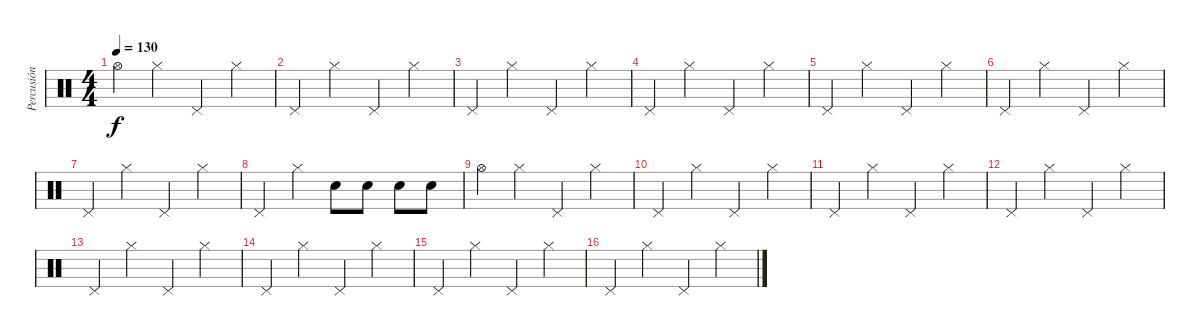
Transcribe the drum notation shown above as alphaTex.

\track ("Percusión" "Percusión") {instrument percussion}
\staff {score}
\articulation defaults
\ts (4 4)
\tempo 130
\clef neutral
\ks c "Hi-Hat (open)".4{dy f} "Hi-Hat (closed)".4 "Pedal Hi-Hat (hit)".4 "Hi-Hat (closed)".4
|
"Pedal Hi-Hat (hit)".4 "Hi-Hat (closed)".4 "Pedal Hi-Hat (hit)".4 "Hi-Hat (closed)".4 |
"Pedal Hi-Hat (hit)".4 "Hi-Hat (closed)".4 "Pedal Hi-Hat (hit)".4 "Hi-Hat (closed)".4 |
"Pedal Hi-Hat (hit)".4 "Hi-Hat (closed)".4 "Pedal Hi-Hat (hit)".4 "Hi-Hat (closed)".4 |
"Pedal Hi-Hat (hit)".4 "Hi-Hat (closed)".4 "Pedal Hi-Hat (hit)".4 "Hi-Hat (closed)".4 |
"Pedal Hi-Hat (hit)".4 "Hi-Hat (closed)".4 "Pedal Hi-Hat (hit)".4 "Hi-Hat (closed)".4 |
"Pedal Hi-Hat (hit)".4 "Hi-Hat (closed)".4 "Pedal Hi-Hat (hit)".4 "Hi-Hat (closed)".4 |
"Pedal Hi-Hat (hit)".4 "Hi-Hat (closed)".4 "Electric Snare (hit)".8 "Electric Snare (hit)".8 "Snare (hit) 2".8 "Electric Snare (hit)".8 |
"Hi-Hat (open)".4 "Hi-Hat (closed)".4 "Pedal Hi-Hat (hit)".4 "Hi-Hat (closed)".4 |
"Pedal Hi-Hat (hit)".4 "Hi-Hat (closed)".4 "Pedal Hi-Hat (hit)".4 "Hi-Hat (closed)".4 |
"Pedal Hi-Hat (hit)".4 "Hi-Hat (closed)".4 "Pedal Hi-Hat (hit)".4 "Hi-Hat (closed)".4 |
"Pedal Hi-Hat (hit)".4 "Hi-Hat (closed)".4 "Pedal Hi-Hat (hit)".4 "Hi-Hat (closed)".4 |
"Pedal Hi-Hat (hit)".4 "Hi-Hat (closed)".4 "Pedal Hi-Hat (hit)".4 "Hi-Hat (closed)".4 |
"Pedal Hi-Hat (hit)".4 "Hi-Hat (closed)".4 "Pedal Hi-Hat (hit)".4 "Hi-Hat (closed)".4 |
"Pedal Hi-Hat (hit)".4 "Hi-Hat (closed)".4 "Pedal Hi-Hat (hit)".4 "Hi-Hat (closed)".4 |
"Pedal Hi-Hat (hit)".4 "Hi-Hat (closed)".4 "Pedal Hi-Hat (hit)".4 "Hi-Hat (closed)".4
